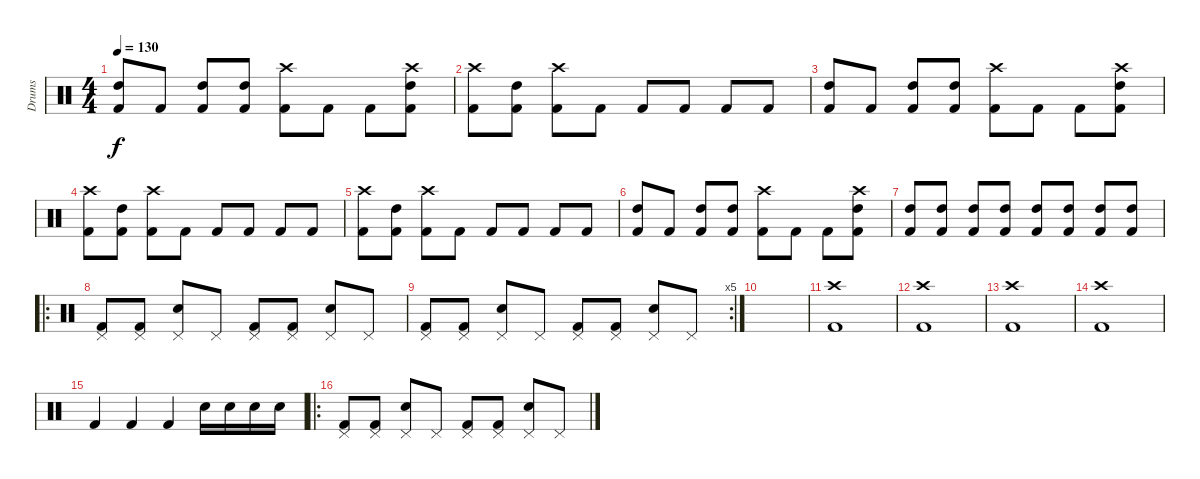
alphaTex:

\track ("Drums" "Drums") {instrument percussion}
\staff {score}
\articulation defaults
\ts (4 4)
\tempo 130
\clef neutral
\ks c
("Kick (hit) 2" "High Tom (hit)").8{dy f} "Kick (hit) 2".8 ("Kick (hit) 2" "High Tom (hit)").8 ("Kick (hit) 2" "High Tom (hit)").8 ("Kick (hit) 2" "Crash high (hit)").8 "Kick (hit) 2".8 "Kick (hit) 2".8 ("Kick (hit) 2" "Crash high (hit)" "High Tom (hit)").8 |
("Kick (hit) 2" "Crash high (hit)").8 ("Kick (hit) 2" "High Tom (hit)").8 ("Kick (hit) 2" "Crash high (hit)").8 "Kick (hit) 2".8 "Kick (hit) 2".8 "Kick (hit) 2".8 "Kick (hit) 2".8 "Kick (hit) 2".8 |
("Kick (hit) 2" "High Tom (hit)").8 "Kick (hit) 2".8 ("Kick (hit) 2" "High Tom (hit)").8 ("Kick (hit) 2" "High Tom (hit)").8 ("Kick (hit) 2" "Crash high (hit)").8 "Kick (hit) 2".8 "Kick (hit) 2".8 ("Kick (hit) 2" "Crash high (hit)" "High Tom (hit)").8 |
("Kick (hit) 2" "Crash high (hit)").8 ("Kick (hit) 2" "High Tom (hit)").8 ("Kick (hit) 2" "Crash high (hit)").8 "Kick (hit) 2".8 "Kick (hit) 2".8 "Kick (hit) 2".8 "Kick (hit) 2".8 "Kick (hit) 2".8 |
("Kick (hit) 2" "Crash high (hit)").8 ("Kick (hit) 2" "High Tom (hit)").8 ("Kick (hit) 2" "Crash high (hit)").8 "Kick (hit) 2".8 "Kick (hit) 2".8 "Kick (hit) 2".8 "Kick (hit) 2".8 "Kick (hit) 2".8 |
("Kick (hit) 2" "High Tom (hit)").8 "Kick (hit) 2".8 ("Kick (hit) 2" "High Tom (hit)").8 ("Kick (hit) 2" "High Tom (hit)").8 ("Kick (hit) 2" "Crash high (hit)").8 "Kick (hit) 2".8 "Kick (hit) 2".8 ("Kick (hit) 2" "Crash high (hit)" "High Tom (hit)").8 |
("Kick (hit) 2" "High Tom (hit)").8 ("Kick (hit) 2" "High Tom (hit)").8 ("Kick (hit) 2" "High Tom (hit)").8 ("Kick (hit) 2" "High Tom (hit)").8 ("Kick (hit) 2" "High Tom (hit)").8 ("Kick (hit) 2" "High Tom (hit)").8 ("Kick (hit) 2" "High Tom (hit)").8 ("Kick (hit) 2" "High Tom (hit)").8 |
\ro
("Pedal Hi-Hat (hit)" "Kick (hit) 2").8 ("Pedal Hi-Hat (hit)" "Kick (hit) 2").8 ("Pedal Hi-Hat (hit)" "Snare (hit) 2").8 "Pedal Hi-Hat (hit)".8 ("Pedal Hi-Hat (hit)" "Kick (hit) 2").8 ("Pedal Hi-Hat (hit)" "Kick (hit) 2").8 ("Pedal Hi-Hat (hit)" "Snare (hit) 2").8 "Pedal Hi-Hat (hit)".8 |
\rc 5
("Pedal Hi-Hat (hit)" "Kick (hit) 2").8 ("Pedal Hi-Hat (hit)" "Kick (hit) 2").8 ("Pedal Hi-Hat (hit)" "Snare (hit) 2").8 "Pedal Hi-Hat (hit)".8 ("Pedal Hi-Hat (hit)" "Kick (hit) 2").8 ("Pedal Hi-Hat (hit)" "Kick (hit) 2").8 ("Pedal Hi-Hat (hit)" "Snare (hit) 2").8 "Pedal Hi-Hat (hit)".8 |
|
("Crash high (hit)" "Kick (hit) 2").1 |
("Crash high (hit)" "Kick (hit) 2").1 |
("Crash high (hit)" "Kick (hit) 2").1 |
("Crash high (hit)" "Kick (hit) 2").1 |
"Kick (hit) 2".4 "Kick (hit) 2".4 "Kick (hit) 2".4 "Snare (hit) 2".16 "Snare (hit) 2".16 "Snare (hit) 2".16 "Snare (hit) 2".16 |
\ro
("Pedal Hi-Hat (hit)" "Kick (hit) 2").8 ("Pedal Hi-Hat (hit)" "Kick (hit) 2").8 ("Pedal Hi-Hat (hit)" "Snare (hit) 2").8 "Pedal Hi-Hat (hit)".8 ("Pedal Hi-Hat (hit)" "Kick (hit) 2").8 ("Pedal Hi-Hat (hit)" "Kick (hit) 2").8 ("Pedal Hi-Hat (hit)" "Snare (hit) 2").8 "Pedal Hi-Hat (hit)".8
